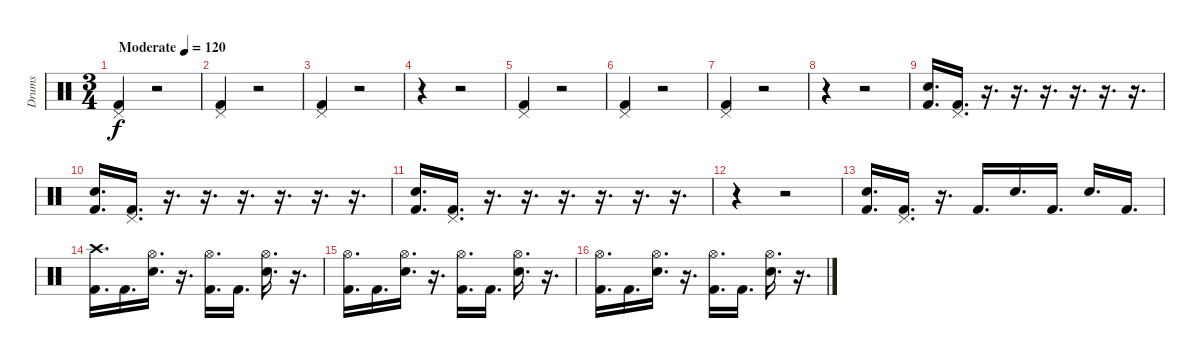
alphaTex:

\track ("Drums" "Drums") {instrument percussion}
\staff {score}
\articulation defaults
\ts (3 4)
\tempo (120 "Moderate")
\clef neutral
\ks c
("Pedal Hi-Hat (hit)" "Kick (hit) 2").4{dy f} r.2 |
("Pedal Hi-Hat (hit)" "Kick (hit) 2").4 r.2 |
("Pedal Hi-Hat (hit)" "Kick (hit) 2").4 r.2 |
r.4 r.2 |
("Pedal Hi-Hat (hit)" "Kick (hit) 2").4 r.2 |
("Pedal Hi-Hat (hit)" "Kick (hit) 2").4 r.2 |
("Pedal Hi-Hat (hit)" "Kick (hit) 2").4 r.2 |
r.4 r.2 |
("Electric Snare (hit)" "Kick (hit) 2").16{d} ("Pedal Hi-Hat (hit)" "Kick (hit) 2").16{d} r.16{d} r.16{d} r.16{d} r.16{d} r.16{d} r.16{d} |
("Electric Snare (hit)" "Kick (hit) 2").16{d} ("Pedal Hi-Hat (hit)" "Kick (hit) 2").16{d} r.16{d} r.16{d} r.16{d} r.16{d} r.16{d} r.16{d} |
("Electric Snare (hit)" "Kick (hit) 2").16{d} ("Pedal Hi-Hat (hit)" "Kick (hit) 2").16{d} r.16{d} r.16{d} r.16{d} r.16{d} r.16{d} r.16{d} |
r.4 r.2 |
("Electric Snare (hit)" "Kick (hit) 2").16{d} ("Pedal Hi-Hat (hit)" "Kick (hit) 2").16{d} r.16{d} "Kick (hit) 2".16{d} "Electric Snare (hit)".16{d} "Kick (hit) 2".16{d} "Electric Snare (hit)".16{d} "Kick (hit) 2".16{d} |
("Crash high (hit)" "Kick (hit) 2").16{d} "Kick (hit) 2".16{d} ("Hi-Hat (open)" "Electric Snare (hit)").16{d} r.16{d} ("Hi-Hat (open)" "Kick (hit) 2").16{d} "Kick (hit) 2".16{d} ("Hi-Hat (open)" "Electric Snare (hit)").16{d} r.16{d} |
("Hi-Hat (open)" "Kick (hit) 2").16{d} "Kick (hit) 2".16{d} ("Hi-Hat (open)" "Electric Snare (hit)").16{d} r.16{d} ("Hi-Hat (open)" "Kick (hit) 2").16{d} "Kick (hit) 2".16{d} ("Hi-Hat (open)" "Electric Snare (hit)").16{d} r.16{d} |
("Hi-Hat (open)" "Kick (hit) 2").16{d} "Kick (hit) 2".16{d} ("Hi-Hat (open)" "Electric Snare (hit)").16{d} r.16{d} ("Hi-Hat (open)" "Kick (hit) 2").16{d} "Kick (hit) 2".16{d} ("Hi-Hat (open)" "Electric Snare (hit)").16{d} r.16{d}
